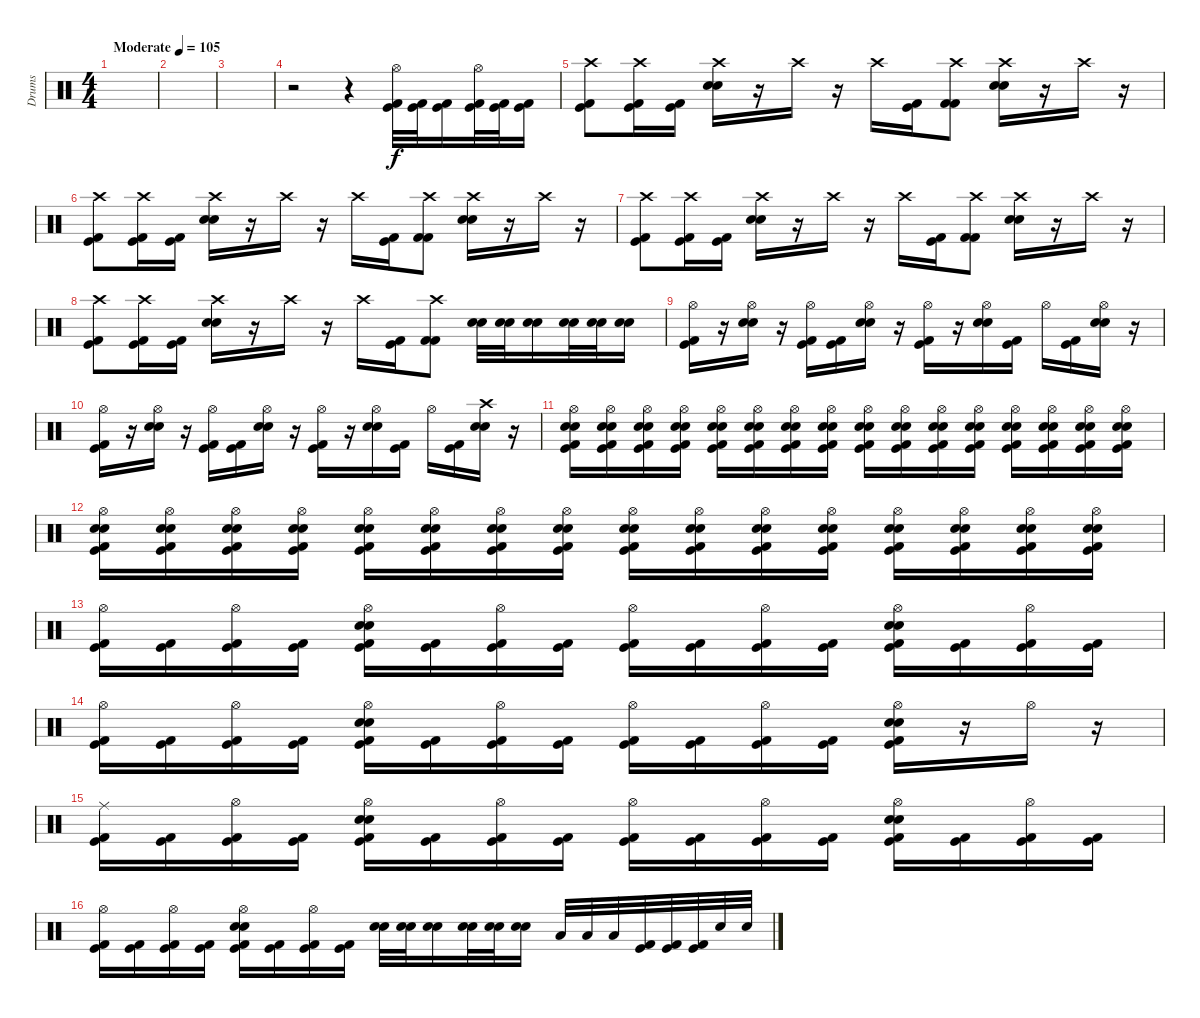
\track ("Drums" "Drums") {instrument percussion}
\staff {score}
\articulation defaults
\ts (4 4)
\tempo (105 "Moderate")
\clef neutral
\ks c
|
|
|
r.2 r.4 ("Hi-Hat (open)" "Kick (hit)" "Kick (hit) 2").32 ("Kick (hit)" "Kick (hit) 2").32 ("Kick (hit)" "Kick (hit) 2").16 ("Hi-Hat (open)" "Kick (hit)" "Kick (hit) 2").32 ("Kick (hit)" "Kick (hit) 2").32 ("Kick (hit)" "Kick (hit) 2").16 |
("Crash high (hit)" "Kick (hit)" "Kick (hit) 2").8 ("Crash high (hit)" "Kick (hit)" "Kick (hit) 2").16 ("Kick (hit)" "Kick (hit) 2").16 ("Crash high (hit)" "Electric Snare (hit)" "Snare (hit) 2").16 r.16 "Crash high (hit)".16 r.16 "Crash high (hit)".16 ("Kick (hit)" "Kick (hit) 2").16 ("Crash high (hit)" "Kick (hit) 2" "Kick (hit) 2").8 ("Crash high (hit)" "Electric Snare (hit)" "Snare (hit) 2").16 r.16 "Crash high (hit)".16 r.16 |
("Crash high (hit)" "Kick (hit)" "Kick (hit) 2").8 ("Crash high (hit)" "Kick (hit)" "Kick (hit) 2").16 ("Kick (hit)" "Kick (hit) 2").16 ("Crash high (hit)" "Electric Snare (hit)" "Snare (hit) 2").16 r.16 "Crash high (hit)".16 r.16 "Crash high (hit)".16 ("Kick (hit)" "Kick (hit) 2").16 ("Crash high (hit)" "Kick (hit) 2" "Kick (hit) 2").8 ("Crash high (hit)" "Electric Snare (hit)" "Snare (hit) 2").16 r.16 "Crash high (hit)".16 r.16 |
("Crash high (hit)" "Kick (hit)" "Kick (hit) 2").8 ("Crash high (hit)" "Kick (hit)" "Kick (hit) 2").16 ("Kick (hit)" "Kick (hit) 2").16 ("Crash high (hit)" "Electric Snare (hit)" "Snare (hit) 2").16 r.16 "Crash high (hit)".16 r.16 "Crash high (hit)".16 ("Kick (hit)" "Kick (hit) 2").16 ("Crash high (hit)" "Kick (hit) 2" "Kick (hit) 2").8 ("Crash high (hit)" "Electric Snare (hit)" "Snare (hit) 2").16 r.16 "Crash high (hit)".16 r.16 |
("Crash high (hit)" "Kick (hit)" "Kick (hit) 2").8 ("Crash high (hit)" "Kick (hit)" "Kick (hit) 2").16 ("Kick (hit)" "Kick (hit) 2").16 ("Crash high (hit)" "Electric Snare (hit)" "Snare (hit) 2").16 r.16 "Crash high (hit)".16 r.16 "Crash high (hit)".16 ("Kick (hit)" "Kick (hit) 2").16 ("Crash high (hit)" "Kick (hit) 2" "Kick (hit) 2").8 ("Electric Snare (hit)" "Snare (hit) 2").32 ("Electric Snare (hit)" "Snare (hit) 2").32 ("Electric Snare (hit)" "Snare (hit) 2").16 ("Electric Snare (hit)" "Snare (hit) 2").32 ("Electric Snare (hit)" "Snare (hit) 2").32 ("Electric Snare (hit)" "Snare (hit) 2").16 |
("Hi-Hat (open)" "Kick (hit)" "Kick (hit) 2").16 r.16 ("Hi-Hat (open)" "Electric Snare (hit)" "Snare (hit) 2").16 r.16 ("Hi-Hat (open)" "Kick (hit)" "Kick (hit) 2").16 ("Kick (hit)" "Kick (hit) 2").16 ("Hi-Hat (open)" "Electric Snare (hit)" "Snare (hit) 2").16 r.16 ("Hi-Hat (open)" "Kick (hit) 2" "Kick (hit)").16 r.16 ("Hi-Hat (open)" "Electric Snare (hit)" "Snare (hit) 2").16 ("Kick (hit)" "Kick (hit) 2").16 "Hi-Hat (open)".16 ("Kick (hit) 2" "Kick (hit)").16 ("Hi-Hat (open)" "Electric Snare (hit)" "Snare (hit) 2").16 r.16 |
("Hi-Hat (open)" "Kick (hit)" "Kick (hit) 2").16 r.16 ("Hi-Hat (open)" "Electric Snare (hit)" "Snare (hit) 2").16 r.16 ("Hi-Hat (open)" "Kick (hit)" "Kick (hit) 2").16 ("Kick (hit)" "Kick (hit) 2").16 ("Hi-Hat (open)" "Electric Snare (hit)" "Snare (hit) 2").16 r.16 ("Hi-Hat (open)" "Kick (hit) 2" "Kick (hit)").16 r.16 ("Hi-Hat (open)" "Electric Snare (hit)" "Snare (hit) 2").16 ("Kick (hit)" "Kick (hit) 2").16 "Hi-Hat (open)".16 ("Kick (hit) 2" "Kick (hit)").16 ("Crash high (hit)" "Electric Snare (hit)" "Snare (hit) 2").16 r.16 |
("Hi-Hat (open)" "Electric Snare (hit)" "Snare (hit) 2" "Kick (hit)" "Kick (hit) 2").16 ("Hi-Hat (open)" "Electric Snare (hit)" "Snare (hit) 2" "Kick (hit)" "Kick (hit) 2").16 ("Hi-Hat (open)" "Electric Snare (hit)" "Snare (hit) 2" "Kick (hit)" "Kick (hit) 2").16 ("Hi-Hat (open)" "Electric Snare (hit)" "Snare (hit) 2" "Kick (hit)" "Kick (hit) 2").16 ("Hi-Hat (open)" "Electric Snare (hit)" "Snare (hit) 2" "Kick (hit)" "Kick (hit) 2").16 ("Hi-Hat (open)" "Electric Snare (hit)" "Snare (hit) 2" "Kick (hit)" "Kick (hit) 2").16 ("Hi-Hat (open)" "Electric Snare (hit)" "Snare (hit) 2" "Kick (hit)" "Kick (hit) 2").16 ("Hi-Hat (open)" "Electric Snare (hit)" "Snare (hit) 2" "Kick (hit)" "Kick (hit) 2").16 ("Hi-Hat (open)" "Electric Snare (hit)" "Snare (hit) 2" "Kick (hit)" "Kick (hit) 2").16 ("Hi-Hat (open)" "Electric Snare (hit)" "Snare (hit) 2" "Kick (hit)" "Kick (hit) 2").16 ("Hi-Hat (open)" "Electric Snare (hit)" "Snare (hit) 2" "Kick (hit)" "Kick (hit) 2").16 ("Hi-Hat (open)" "Electric Snare (hit)" "Snare (hit) 2" "Kick (hit)" "Kick (hit) 2").16 ("Hi-Hat (open)" "Electric Snare (hit)" "Snare (hit) 2" "Kick (hit)" "Kick (hit) 2").16 ("Hi-Hat (open)" "Electric Snare (hit)" "Snare (hit) 2" "Kick (hit)" "Kick (hit) 2").16 ("Hi-Hat (open)" "Electric Snare (hit)" "Snare (hit) 2" "Kick (hit)" "Kick (hit) 2").16 ("Hi-Hat (open)" "Electric Snare (hit)" "Snare (hit) 2" "Kick (hit)" "Kick (hit) 2").16 |
("Hi-Hat (open)" "Electric Snare (hit)" "Snare (hit) 2" "Kick (hit)" "Kick (hit) 2").16 ("Hi-Hat (open)" "Electric Snare (hit)" "Snare (hit) 2" "Kick (hit)" "Kick (hit) 2").16 ("Hi-Hat (open)" "Electric Snare (hit)" "Snare (hit) 2" "Kick (hit)" "Kick (hit) 2").16 ("Hi-Hat (open)" "Electric Snare (hit)" "Snare (hit) 2" "Kick (hit)" "Kick (hit) 2").16 ("Hi-Hat (open)" "Electric Snare (hit)" "Snare (hit) 2" "Kick (hit)" "Kick (hit) 2").16 ("Hi-Hat (open)" "Electric Snare (hit)" "Snare (hit) 2" "Kick (hit)" "Kick (hit) 2").16 ("Hi-Hat (open)" "Electric Snare (hit)" "Snare (hit) 2" "Kick (hit)" "Kick (hit) 2").16 ("Hi-Hat (open)" "Electric Snare (hit)" "Snare (hit) 2" "Kick (hit)" "Kick (hit) 2").16 ("Hi-Hat (open)" "Electric Snare (hit)" "Snare (hit) 2" "Kick (hit)" "Kick (hit) 2").16 ("Hi-Hat (open)" "Electric Snare (hit)" "Snare (hit) 2" "Kick (hit)" "Kick (hit) 2").16 ("Hi-Hat (open)" "Electric Snare (hit)" "Snare (hit) 2" "Kick (hit)" "Kick (hit) 2").16 ("Hi-Hat (open)" "Electric Snare (hit)" "Snare (hit) 2" "Kick (hit)" "Kick (hit) 2").16 ("Hi-Hat (open)" "Electric Snare (hit)" "Snare (hit) 2" "Kick (hit)" "Kick (hit) 2").16 ("Hi-Hat (open)" "Electric Snare (hit)" "Snare (hit) 2" "Kick (hit)" "Kick (hit) 2").16 ("Hi-Hat (open)" "Electric Snare (hit)" "Snare (hit) 2" "Kick (hit)" "Kick (hit) 2").16 ("Hi-Hat (open)" "Electric Snare (hit)" "Snare (hit) 2" "Kick (hit)" "Kick (hit) 2").16 |
("Hi-Hat (open)" "Kick (hit)" "Kick (hit) 2").16 ("Kick (hit)" "Kick (hit) 2").16 ("Hi-Hat (open)" "Kick (hit)" "Kick (hit) 2").16 ("Kick (hit)" "Kick (hit) 2").16 ("Hi-Hat (open)" "Electric Snare (hit)" "Snare (hit) 2" "Kick (hit)" "Kick (hit) 2").16 ("Kick (hit)" "Kick (hit) 2").16 ("Hi-Hat (open)" "Kick (hit)" "Kick (hit) 2").16 ("Kick (hit)" "Kick (hit) 2").16 ("Hi-Hat (open)" "Kick (hit)" "Kick (hit) 2").16 ("Kick (hit)" "Kick (hit) 2").16 ("Hi-Hat (open)" "Kick (hit)" "Kick (hit) 2").16 ("Kick (hit)" "Kick (hit) 2").16 ("Hi-Hat (open)" "Electric Snare (hit)" "Snare (hit) 2" "Kick (hit)" "Kick (hit) 2").16 ("Kick (hit)" "Kick (hit) 2").16 ("Hi-Hat (open)" "Kick (hit)" "Kick (hit) 2").16 ("Kick (hit)" "Kick (hit) 2").16 |
("Hi-Hat (open)" "Kick (hit)" "Kick (hit) 2").16 ("Kick (hit)" "Kick (hit) 2").16 ("Hi-Hat (open)" "Kick (hit)" "Kick (hit) 2").16 ("Kick (hit)" "Kick (hit) 2").16 ("Hi-Hat (open)" "Electric Snare (hit)" "Snare (hit) 2" "Kick (hit)" "Kick (hit) 2").16 ("Kick (hit)" "Kick (hit) 2").16 ("Hi-Hat (open)" "Kick (hit)" "Kick (hit) 2").16 ("Kick (hit)" "Kick (hit) 2").16 ("Hi-Hat (open)" "Kick (hit)" "Kick (hit) 2").16 ("Kick (hit)" "Kick (hit) 2").16 ("Hi-Hat (open)" "Kick (hit)" "Kick (hit) 2").16 ("Kick (hit)" "Kick (hit) 2").16 ("Hi-Hat (open)" "Electric Snare (hit)" "Snare (hit) 2" "Kick (hit)" "Kick (hit) 2").16 r.16 "Hi-Hat (open)".16 r.16 |
("Ride (middle)" "Kick (hit)" "Kick (hit) 2").16 ("Kick (hit)" "Kick (hit) 2").16 ("Hi-Hat (open)" "Kick (hit)" "Kick (hit) 2").16 ("Kick (hit)" "Kick (hit) 2").16 ("Hi-Hat (open)" "Electric Snare (hit)" "Snare (hit) 2" "Kick (hit)" "Kick (hit) 2").16 ("Kick (hit)" "Kick (hit) 2").16 ("Hi-Hat (open)" "Kick (hit)" "Kick (hit) 2").16 ("Kick (hit)" "Kick (hit) 2").16 ("Hi-Hat (open)" "Kick (hit)" "Kick (hit) 2").16 ("Kick (hit)" "Kick (hit) 2").16 ("Hi-Hat (open)" "Kick (hit)" "Kick (hit) 2").16 ("Kick (hit)" "Kick (hit) 2").16 ("Hi-Hat (open)" "Electric Snare (hit)" "Snare (hit) 2" "Kick (hit)" "Kick (hit) 2").16 ("Kick (hit)" "Kick (hit) 2").16 ("Hi-Hat (open)" "Kick (hit)" "Kick (hit) 2").16 ("Kick (hit)" "Kick (hit) 2").16 |
("Hi-Hat (open)" "Kick (hit)" "Kick (hit) 2").16 ("Kick (hit)" "Kick (hit) 2").16 ("Hi-Hat (open)" "Kick (hit)" "Kick (hit) 2").16 ("Kick (hit)" "Kick (hit) 2").16 ("Hi-Hat (open)" "Electric Snare (hit)" "Snare (hit) 2" "Kick (hit)" "Kick (hit) 2").16 ("Kick (hit)" "Kick (hit) 2").16 ("Hi-Hat (open)" "Kick (hit)" "Kick (hit) 2").16 ("Kick (hit)" "Kick (hit) 2").16 ("Electric Snare (hit)" "Snare (hit) 2").32 ("Electric Snare (hit)" "Snare (hit) 2").32 ("Electric Snare (hit)" "Snare (hit) 2").16 ("Electric Snare (hit)" "Snare (hit) 2").32 ("Electric Snare (hit)" "Snare (hit) 2").32 ("Electric Snare (hit)" "Snare (hit) 2").16 "Low Floor Tom (hit)".32 "Low Floor Tom (hit)".32 "Low Floor Tom (hit)".32 ("Kick (hit)" "Kick (hit) 2").32 ("Kick (hit)" "Kick (hit) 2").32 ("Kick (hit)" "Kick (hit) 2").32 "Snare (hit) 2".32 "Snare (hit) 2".32
